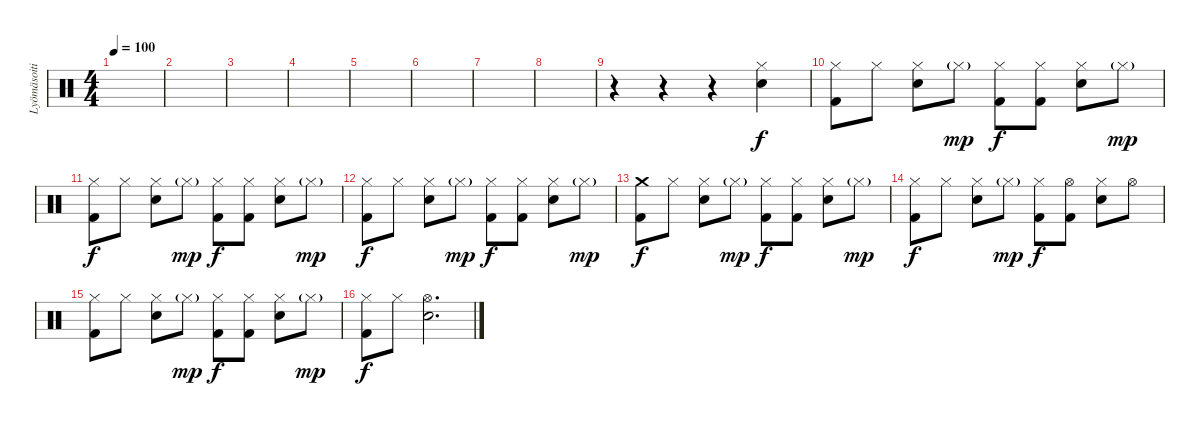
\track ("Lyömäsoitin" "Lyömäsoiti") {instrument percussion}
\staff {score}
\articulation defaults
\ts (4 4)
\tempo 100
\clef neutral
\ks c
|
|
|
|
|
|
|
|
r.4 r.4 r.4 ("Hi-Hat (closed)" "Electric Snare (hit)").4 |
("Hi-Hat (closed)" "Kick (hit) 2").8 "Hi-Hat (closed)".8 ("Hi-Hat (closed)" "Electric Snare (hit)").8 "Hi-Hat (closed)"{g}.8{dy mp} ("Hi-Hat (closed)" "Kick (hit) 2").8{dy f} ("Hi-Hat (closed)" "Kick (hit) 2").8 ("Hi-Hat (closed)" "Electric Snare (hit)").8 "Hi-Hat (closed)"{g}.8{dy mp} |
("Hi-Hat (closed)" "Kick (hit) 2").8{dy f} "Hi-Hat (closed)".8 ("Hi-Hat (closed)" "Electric Snare (hit)").8 "Hi-Hat (closed)"{g}.8{dy mp} ("Hi-Hat (closed)" "Kick (hit) 2").8{dy f} ("Hi-Hat (closed)" "Kick (hit) 2").8 ("Hi-Hat (closed)" "Electric Snare (hit)").8 "Hi-Hat (closed)"{g}.8{dy mp} |
("Hi-Hat (closed)" "Kick (hit) 2").8{dy f} "Hi-Hat (closed)".8 ("Hi-Hat (closed)" "Electric Snare (hit)").8 "Hi-Hat (closed)"{g}.8{dy mp} ("Hi-Hat (closed)" "Kick (hit) 2").8{dy f} ("Hi-Hat (closed)" "Kick (hit) 2").8 ("Hi-Hat (closed)" "Electric Snare (hit)").8 "Hi-Hat (closed)"{g}.8{dy mp} |
("Crash medium (hit)" "Kick (hit) 2").8{dy f} "Hi-Hat (closed)".8 ("Hi-Hat (closed)" "Electric Snare (hit)").8 "Hi-Hat (closed)"{g}.8{dy mp} ("Hi-Hat (closed)" "Kick (hit) 2").8{dy f} ("Hi-Hat (closed)" "Kick (hit) 2").8 ("Hi-Hat (closed)" "Electric Snare (hit)").8 "Hi-Hat (closed)"{g}.8{dy mp} |
("Hi-Hat (closed)" "Kick (hit) 2").8{dy f} "Hi-Hat (closed)".8 ("Hi-Hat (closed)" "Electric Snare (hit)").8 "Hi-Hat (closed)"{g}.8{dy mp} ("Hi-Hat (closed)" "Kick (hit) 2").8{dy f} ("Hi-Hat (open)" "Kick (hit) 2").8 ("Hi-Hat (closed)" "Electric Snare (hit)").8 "Hi-Hat (open)".8 |
("Hi-Hat (closed)" "Kick (hit) 2").8 "Hi-Hat (closed)".8 ("Hi-Hat (closed)" "Electric Snare (hit)").8 "Hi-Hat (closed)"{g}.8{dy mp} ("Hi-Hat (closed)" "Kick (hit) 2").8{dy f} ("Hi-Hat (closed)" "Kick (hit) 2").8 ("Hi-Hat (closed)" "Electric Snare (hit)").8 "Hi-Hat (closed)"{g}.8{dy mp} |
("Hi-Hat (closed)" "Kick (hit) 2").8{dy f} "Hi-Hat (closed)".8 ("Hi-Hat (open)" "Electric Snare (hit)").2{d}
